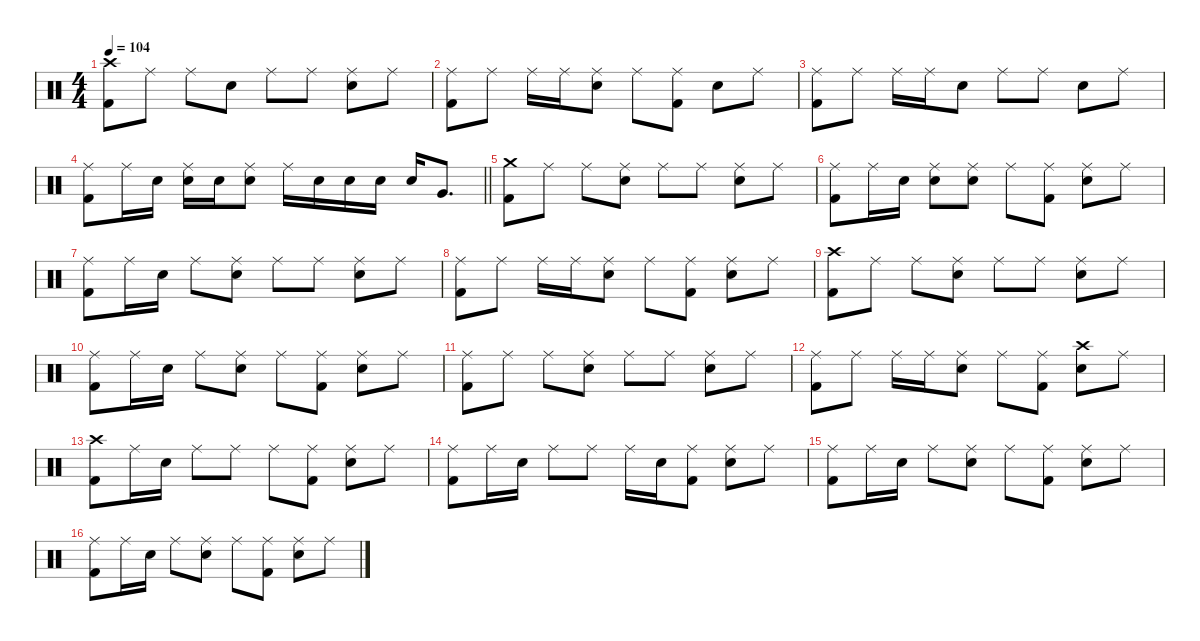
\defaultSystemsLayout 4
\hideDynamics
\bracketExtendMode nobrackets
\singleTrackTrackNamePolicy hidden
\multiTrackTrackNamePolicy hidden
\firstSystemTrackNameMode fullname
\firstSystemTrackNameOrientation horizontal
\otherSystemsTrackNameOrientation horizontal
\track ("Drums" "drm.") {instrument percussion}
\staff {score}
\articulation defaults
\ts (4 4)
\tempo 104
\clef neutral
\ks c
("Crash high (hit)" "Kick (hit) 2").8{dy fff beam Down} "Ride (middle)".8{dy ff beam Down} "Ride (middle)".8{beam Down} "Snare (hit) 2".8{dy fff beam Down} "Ride (middle)".8{dy ff beam Down} "Ride (middle)".8{beam Down} ("Ride (middle)" "Snare (hit) 2").8{beam Down} "Ride (middle)".8{beam Down} |
("Ride (middle)" "Kick (hit) 2").8{beam Down} "Ride (middle)".8{beam Down} "Ride (middle)".16{beam Down} "Ride (middle)".16{beam Down} ("Ride (middle)" "Snare (hit) 2").8{beam Down} "Ride (middle)".8{beam Down} ("Ride (middle)" "Kick (hit) 2").8{beam Down} "Snare (hit) 2".8{dy fff beam Down} "Ride (middle)".8{dy ff beam Down} |
("Ride (middle)" "Kick (hit) 2").8{beam Down} "Ride (middle)".8{beam Down} "Ride (middle)".16{beam Down} "Ride (middle)".16{beam Down} "Snare (hit) 2".8{dy fff beam Down} "Ride (middle)".8{dy ff beam Down} "Ride (middle)".8{beam Down} "Snare (hit) 2".8{dy fff beam Down} "Ride (middle)".8{dy ff beam Down} |
\barLineRight lightlight
("Ride (middle)" "Kick (hit) 2").8{beam Down} "Ride (middle)".16{beam Down} "Snare (hit) 2".16{dy mf beam Down} ("Ride (middle)" "Snare (hit) 2").16{dy ff beam Down} "Snare (hit) 2".16{dy f beam Down} ("Ride (middle)" "Snare (hit) 2").8{beam Down} "Ride (middle)".16{dy ff beam Down} "Snare (hit) 2".16{dy mf beam Down} "Snare (hit) 2".16{dy f beam Down} "Snare (hit) 2".16{beam Down} "Snare (hit) 2".16{dy fff beam Up} "Very Low Tom (hit)".8{d beam Up} |
("Crash medium (hit)" "Kick (hit) 2").8{dy ff beam Down} "Ride (middle)".8{beam Down} "Ride (middle)".8{beam Down} ("Ride (middle)" "Snare (hit) 2").8{beam Down} "Ride (middle)".8{beam Down} "Ride (middle)".8{beam Down} ("Ride (middle)" "Snare (hit) 2").8{beam Down} "Ride (middle)".8{beam Down} |
("Ride (middle)" "Kick (hit) 2").8{beam Down} "Ride (middle)".16{beam Down} "Snare (hit) 2".16{dy mf beam Down} ("Ride (middle)" "Snare (hit) 2").8{dy ff beam Down} ("Ride (middle)" "Snare (hit) 2").8{beam Down} "Ride (middle)".8{beam Down} ("Ride (middle)" "Kick (hit) 2").8{beam Down} ("Ride (middle)" "Snare (hit) 2").8{beam Down} "Ride (middle)".8{beam Down} |
("Ride (middle)" "Kick (hit) 2").8{beam Down} "Ride (middle)".16{beam Down} "Snare (hit) 2".16{dy mf beam Down} "Ride (middle)".8{dy ff beam Down} ("Ride (middle)" "Snare (hit) 2").8{beam Down} "Ride (middle)".8{beam Down} "Ride (middle)".8{beam Down} ("Ride (middle)" "Snare (hit) 2").8{beam Down} "Ride (middle)".8{beam Down} |
("Ride (middle)" "Kick (hit) 2").8{beam Down} "Ride (middle)".8{beam Down} "Ride (middle)".16{beam Down} "Ride (middle)".16{beam Down} ("Ride (middle)" "Snare (hit) 2").8{beam Down} "Ride (middle)".8{beam Down} ("Ride (middle)" "Kick (hit) 2").8{beam Down} ("Ride (middle)" "Snare (hit) 2").8{beam Down} "Ride (middle)".8{beam Down} |
("Crash high (hit)" "Kick (hit) 2").8{beam Down} "Ride (middle)".8{beam Down} "Ride (middle)".8{beam Down} ("Ride (middle)" "Snare (hit) 2").8{beam Down} "Ride (middle)".8{beam Down} "Ride (middle)".8{beam Down} ("Ride (middle)" "Snare (hit) 2").8{beam Down} "Ride (middle)".8{beam Down} |
("Ride (middle)" "Kick (hit) 2").8{beam Down} "Ride (middle)".16{beam Down} "Snare (hit) 2".16{dy mf beam Down} "Ride (middle)".8{dy ff beam Down} ("Ride (middle)" "Snare (hit) 2").8{beam Down} "Ride (middle)".8{beam Down} ("Ride (middle)" "Kick (hit) 2").8{beam Down} ("Ride (middle)" "Snare (hit) 2").8{beam Down} "Ride (middle)".8{beam Down} |
("Ride (middle)" "Kick (hit) 2").8{beam Down} "Ride (middle)".8{beam Down} "Ride (middle)".8{beam Down} ("Ride (middle)" "Snare (hit) 2").8{beam Down} "Ride (middle)".8{beam Down} "Ride (middle)".8{beam Down} ("Ride (middle)" "Snare (hit) 2").8{beam Down} "Ride (middle)".8{beam Down} |
("Ride (middle)" "Kick (hit) 2").8{beam Down} "Ride (middle)".8{beam Down} "Ride (middle)".16{beam Down} "Ride (middle)".16{beam Down} ("Ride (middle)" "Snare (hit) 2").8{beam Down} "Ride (middle)".8{beam Down} ("Ride (middle)" "Kick (hit) 2").8{beam Down} ("Crash high (hit)" "Snare (hit) 2").8{dy mf beam Down} "Ride (middle)".8{dy ff beam Down} |
("Crash high (hit)" "Kick (hit) 2").8{beam Down} "Ride (middle)".16{beam Down} "Snare (hit) 2".16{dy mf beam Down} "Ride (middle)".8{dy ff beam Down} "Ride (middle)".8{beam Down} "Ride (middle)".8{beam Down} ("Ride (middle)" "Kick (hit) 2").8{beam Down} ("Ride (middle)" "Snare (hit) 2").8{beam Down} "Ride (middle)".8{beam Down} |
("Ride (middle)" "Kick (hit) 2").8{beam Down} "Ride (middle)".16{beam Down} "Snare (hit) 2".16{dy mf beam Down} "Ride (middle)".8{dy ff beam Down} "Ride (middle)".8{beam Down} "Ride (middle)".16{beam Down} "Snare (hit) 2".16{dy mf beam Down} ("Ride (middle)" "Kick (hit) 2").8{dy ff beam Down} ("Ride (middle)" "Snare (hit) 2").8{beam Down} "Ride (middle)".8{beam Down} |
("Ride (middle)" "Kick (hit) 2").8{beam Down} "Ride (middle)".16{beam Down} "Snare (hit) 2".16{dy mf beam Down} "Ride (middle)".8{dy ff beam Down} ("Ride (middle)" "Snare (hit) 2").8{beam Down} "Ride (middle)".8{beam Down} ("Ride (middle)" "Kick (hit) 2").8{beam Down} ("Ride (middle)" "Snare (hit) 2").8{beam Down} "Ride (middle)".8{beam Down} |
("Ride (middle)" "Kick (hit) 2").8{beam Down} "Ride (middle)".16{beam Down} "Snare (hit) 2".16{dy mf beam Down} "Ride (middle)".8{dy ff beam Down} ("Ride (middle)" "Snare (hit) 2").8{beam Down} "Ride (middle)".8{beam Down} ("Ride (middle)" "Kick (hit) 2").8{beam Down} ("Ride (middle)" "Snare (hit) 2").8{beam Down} "Ride (middle)".8{beam Down}
